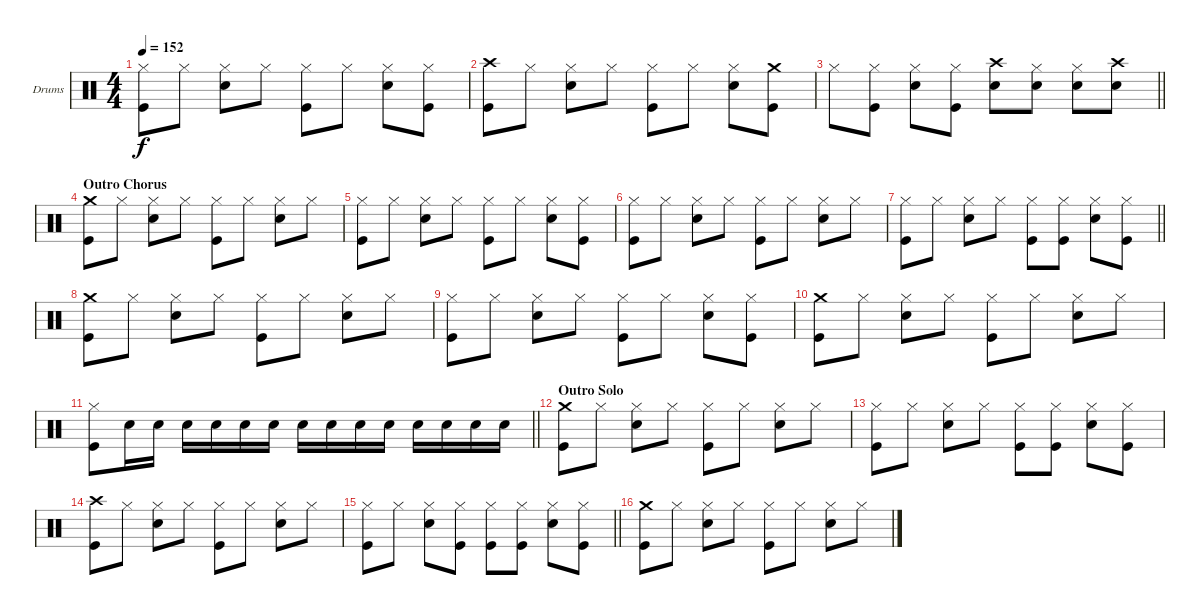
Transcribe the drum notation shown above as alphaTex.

\bracketExtendMode groupsimilarinstruments
\firstSystemTrackNameOrientation horizontal
\otherSystemsTrackNameOrientation horizontal
\track ("Drumkit" "Drums") {instrument percussion}
\staff {score}
\articulation defaults
\ts (4 4)
\tempo 152
\clef neutral
\ks c
("Hi-Hat (closed)" "Kick (hit)").8{dy f} "Hi-Hat (closed)".8 ("Hi-Hat (closed)" "Snare (hit) 2").8 "Hi-Hat (closed)".8 ("Hi-Hat (closed)" "Kick (hit)").8 "Hi-Hat (closed)".8 ("Hi-Hat (closed)" "Snare (hit) 2").8 ("Hi-Hat (closed)" "Kick (hit)").8 |
("Crash high (hit)" "Kick (hit)").8 "Hi-Hat (closed)".8 ("Hi-Hat (closed)" "Snare (hit) 2").8 "Hi-Hat (closed)".8 ("Hi-Hat (closed)" "Kick (hit)").8 "Hi-Hat (closed)".8 ("Hi-Hat (closed)" "Snare (hit) 2").8 ("Crash medium (hit)" "Kick (hit)").8 |
\barLineRight lightlight "Hi-Hat (closed)".8
("Hi-Hat (closed)" "Kick (hit)").8 ("Hi-Hat (closed)" "Snare (hit) 2").8 ("Hi-Hat (closed)" "Kick (hit)").8 ("Crash high (hit)" "Snare (hit) 2").8 ("Hi-Hat (closed)" "Snare (hit) 2").8 ("Hi-Hat (closed)" "Snare (hit) 2").8 ("Crash high (hit)" "Snare (hit) 2").8 |
\section ("" "Outro Chorus")
("Crash medium (hit)" "Kick (hit)").8 "Hi-Hat (closed)".8 ("Hi-Hat (closed)" "Snare (hit) 2").8 "Hi-Hat (closed)".8 ("Hi-Hat (closed)" "Kick (hit)").8 "Hi-Hat (closed)".8 ("Hi-Hat (closed)" "Snare (hit) 2").8 "Hi-Hat (closed)".8 |
("Hi-Hat (closed)" "Kick (hit)").8 "Hi-Hat (closed)".8 ("Hi-Hat (closed)" "Snare (hit) 2").8 "Hi-Hat (closed)".8 ("Hi-Hat (closed)" "Kick (hit)").8 "Hi-Hat (closed)".8 ("Hi-Hat (closed)" "Snare (hit) 2").8 ("Hi-Hat (closed)" "Kick (hit)").8 |
("Hi-Hat (closed)" "Kick (hit)").8 "Hi-Hat (closed)".8 ("Hi-Hat (closed)" "Snare (hit) 2").8 "Hi-Hat (closed)".8 ("Hi-Hat (closed)" "Kick (hit)").8 "Hi-Hat (closed)".8 ("Hi-Hat (closed)" "Snare (hit) 2").8 "Hi-Hat (closed)".8 |
\barLineRight lightlight
("Hi-Hat (closed)" "Kick (hit)").8 "Hi-Hat (closed)".8 ("Hi-Hat (closed)" "Snare (hit) 2").8 "Hi-Hat (closed)".8 ("Hi-Hat (closed)" "Kick (hit)").8 ("Hi-Hat (closed)" "Kick (hit)").8 ("Hi-Hat (closed)" "Snare (hit) 2").8 ("Hi-Hat (closed)" "Kick (hit)").8 |
("Crash medium (hit)" "Kick (hit)").8 "Hi-Hat (closed)".8 ("Hi-Hat (closed)" "Snare (hit) 2").8 "Hi-Hat (closed)".8 ("Hi-Hat (closed)" "Kick (hit)").8 "Hi-Hat (closed)".8 ("Hi-Hat (closed)" "Snare (hit) 2").8 "Hi-Hat (closed)".8 |
("Hi-Hat (closed)" "Kick (hit)").8 "Hi-Hat (closed)".8 ("Hi-Hat (closed)" "Snare (hit) 2").8 "Hi-Hat (closed)".8 ("Hi-Hat (closed)" "Kick (hit)").8 "Hi-Hat (closed)".8 ("Hi-Hat (closed)" "Snare (hit) 2").8 ("Hi-Hat (closed)" "Kick (hit)").8 |
("Crash medium (hit)" "Kick (hit)").8 "Hi-Hat (closed)".8 ("Hi-Hat (closed)" "Snare (hit) 2").8 "Hi-Hat (closed)".8 ("Hi-Hat (closed)" "Kick (hit)").8 "Hi-Hat (closed)".8 ("Hi-Hat (closed)" "Snare (hit) 2").8 "Hi-Hat (closed)".8 |
\barLineRight lightlight
("Hi-Hat (closed)" "Kick (hit)").8 "Snare (hit) 2".16 "Snare (hit) 2".16 "Snare (hit) 2".16 "Snare (hit) 2".16 "Snare (hit) 2".16 "Snare (hit) 2".16 "Snare (hit) 2".16 "Snare (hit) 2".16 "Snare (hit) 2".16 "Snare (hit) 2".16 "Snare (hit) 2".16 "Snare (hit) 2".16 "Snare (hit) 2".16 "Snare (hit) 2".16 |
\section ("" "Outro Solo")
("Crash medium (hit)" "Kick (hit)").8 "Hi-Hat (closed)".8 ("Hi-Hat (closed)" "Snare (hit) 2").8 "Hi-Hat (closed)".8 ("Hi-Hat (closed)" "Kick (hit)").8 "Hi-Hat (closed)".8 ("Hi-Hat (closed)" "Snare (hit) 2").8 "Hi-Hat (closed)".8 |
("Hi-Hat (closed)" "Kick (hit)").8 "Hi-Hat (closed)".8 ("Hi-Hat (closed)" "Snare (hit) 2").8 "Hi-Hat (closed)".8 ("Hi-Hat (closed)" "Kick (hit)").8 ("Hi-Hat (closed)" "Kick (hit)").8 ("Hi-Hat (closed)" "Snare (hit) 2").8 ("Hi-Hat (closed)" "Kick (hit)").8 |
("Crash high (hit)" "Kick (hit)").8 "Hi-Hat (closed)".8 ("Hi-Hat (closed)" "Snare (hit) 2").8 "Hi-Hat (closed)".8 ("Hi-Hat (closed)" "Kick (hit)").8 "Hi-Hat (closed)".8 ("Hi-Hat (closed)" "Snare (hit) 2").8 "Hi-Hat (closed)".8 |
\barLineRight lightlight
("Hi-Hat (closed)" "Kick (hit)").8 "Hi-Hat (closed)".8 ("Hi-Hat (closed)" "Snare (hit) 2").8 ("Hi-Hat (closed)" "Kick (hit)").8 ("Hi-Hat (closed)" "Kick (hit)").8 ("Hi-Hat (closed)" "Kick (hit)").8 ("Hi-Hat (closed)" "Snare (hit) 2").8 ("Hi-Hat (closed)" "Kick (hit)").8 |
("Crash medium (hit)" "Kick (hit)").8 "Hi-Hat (closed)".8 ("Hi-Hat (closed)" "Snare (hit) 2").8 "Hi-Hat (closed)".8 ("Hi-Hat (closed)" "Kick (hit)").8 "Hi-Hat (closed)".8 ("Hi-Hat (closed)" "Snare (hit) 2").8 "Hi-Hat (closed)".8
